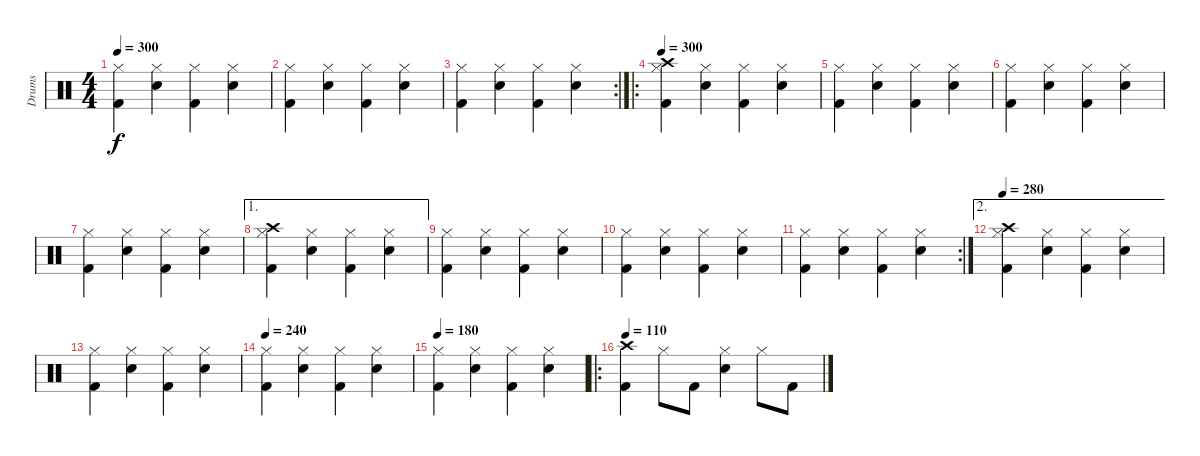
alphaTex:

\track ("Drums" "Drums") {instrument percussion}
\staff {score}
\articulation defaults
\ts (4 4)
\tempo 300
\clef neutral
\ks c
("Hi-Hat (closed)" "Kick (hit) 2").4{dy f} ("Hi-Hat (closed)" "Snare (hit) 2").4 ("Hi-Hat (closed)" "Kick (hit) 2").4 ("Hi-Hat (closed)" "Snare (hit) 2").4 |
("Hi-Hat (closed)" "Kick (hit) 2").4 ("Hi-Hat (closed)" "Snare (hit) 2").4 ("Hi-Hat (closed)" "Kick (hit) 2").4 ("Hi-Hat (closed)" "Snare (hit) 2").4 |
\rc 2
("Hi-Hat (closed)" "Kick (hit) 2").4 ("Hi-Hat (closed)" "Snare (hit) 2").4 ("Hi-Hat (closed)" "Kick (hit) 2").4 ("Hi-Hat (closed)" "Snare (hit) 2").4 |
\ro
\tempo 300
("Hi-Hat (closed)" "Kick (hit) 2" "Crash high (hit)").4 ("Hi-Hat (closed)" "Snare (hit) 2").4 ("Hi-Hat (closed)" "Kick (hit) 2").4 ("Hi-Hat (closed)" "Snare (hit) 2").4 |
("Hi-Hat (closed)" "Kick (hit) 2").4 ("Hi-Hat (closed)" "Snare (hit) 2").4 ("Hi-Hat (closed)" "Kick (hit) 2").4 ("Hi-Hat (closed)" "Snare (hit) 2").4 |
("Hi-Hat (closed)" "Kick (hit) 2").4 ("Hi-Hat (closed)" "Snare (hit) 2").4 ("Hi-Hat (closed)" "Kick (hit) 2").4 ("Hi-Hat (closed)" "Snare (hit) 2").4 |
("Hi-Hat (closed)" "Kick (hit) 2").4 ("Hi-Hat (closed)" "Snare (hit) 2").4 ("Hi-Hat (closed)" "Kick (hit) 2").4 ("Hi-Hat (closed)" "Snare (hit) 2").4 |
\ae 1
("Hi-Hat (closed)" "Kick (hit) 2" "Crash high (hit)").4 ("Hi-Hat (closed)" "Snare (hit) 2").4 ("Hi-Hat (closed)" "Kick (hit) 2").4 ("Hi-Hat (closed)" "Snare (hit) 2").4 |
("Hi-Hat (closed)" "Kick (hit) 2").4 ("Hi-Hat (closed)" "Snare (hit) 2").4 ("Hi-Hat (closed)" "Kick (hit) 2").4 ("Hi-Hat (closed)" "Snare (hit) 2").4 |
("Hi-Hat (closed)" "Kick (hit) 2").4 ("Hi-Hat (closed)" "Snare (hit) 2").4 ("Hi-Hat (closed)" "Kick (hit) 2").4 ("Hi-Hat (closed)" "Snare (hit) 2").4 |
\rc 2
("Hi-Hat (closed)" "Kick (hit) 2").4 ("Hi-Hat (closed)" "Snare (hit) 2").4 ("Hi-Hat (closed)" "Kick (hit) 2").4 ("Hi-Hat (closed)" "Snare (hit) 2").4 |
\ae 2
\tempo 280
("Hi-Hat (closed)" "Kick (hit) 2" "Crash high (hit)").4 ("Hi-Hat (closed)" "Snare (hit) 2").4 ("Hi-Hat (closed)" "Kick (hit) 2").4 ("Hi-Hat (closed)" "Snare (hit) 2").4 |
("Hi-Hat (closed)" "Kick (hit) 2").4 ("Hi-Hat (closed)" "Snare (hit) 2").4 ("Hi-Hat (closed)" "Kick (hit) 2").4 ("Hi-Hat (closed)" "Snare (hit) 2").4 |
\tempo 240
("Hi-Hat (closed)" "Kick (hit) 2").4 ("Hi-Hat (closed)" "Snare (hit) 2").4 ("Hi-Hat (closed)" "Kick (hit) 2").4 ("Hi-Hat (closed)" "Snare (hit) 2").4 |
\tempo 180
("Hi-Hat (closed)" "Kick (hit) 2").4 ("Hi-Hat (closed)" "Snare (hit) 2").4 ("Hi-Hat (closed)" "Kick (hit) 2").4 ("Hi-Hat (closed)" "Snare (hit) 2").4 |
\ro
\tempo 110
("Kick (hit) 2" "Crash high (hit)").4 "Hi-Hat (closed)".8 "Kick (hit) 2".8 ("Snare (hit) 2" "Hi-Hat (closed)").4 "Hi-Hat (closed)".8 "Kick (hit) 2".8
